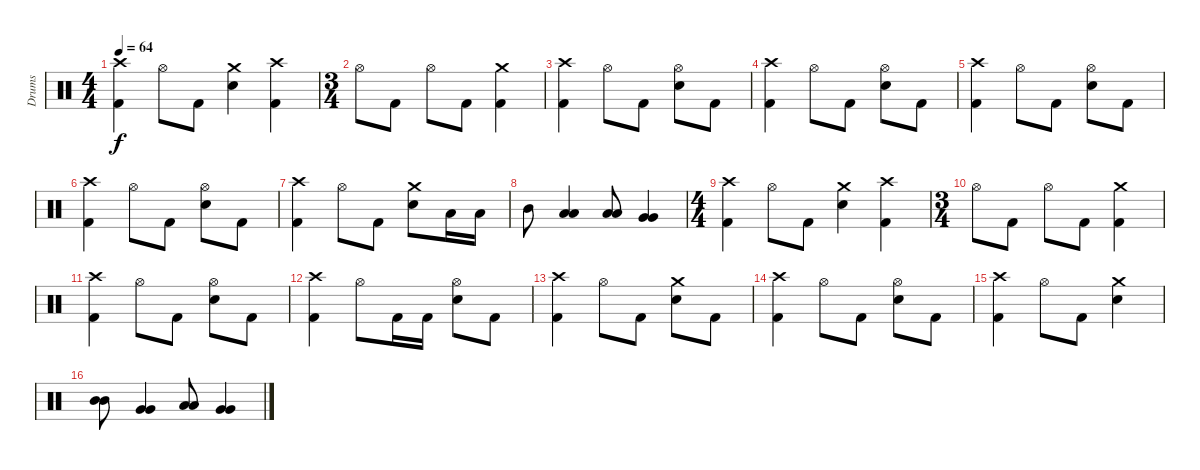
\track ("Drums" "Drums") {instrument percussion}
\staff {score}
\articulation defaults
\ts (4 4)
\tempo 64
\clef neutral
\ks c
("Crash high (hit)" "Kick (hit) 2").4{dy f} "Hi-Hat (open)".8 "Kick (hit) 2".8 ("Crash medium (hit)" "Electric Snare (hit)").4 ("Crash high (hit)" "Kick (hit) 2").4 |
\ts (3 4)
"Hi-Hat (open)".8 "Kick (hit) 2".8 "Hi-Hat (open)".8 "Kick (hit) 2".8 ("Crash medium (hit)" "Kick (hit) 2").4 |
("Crash high (hit)" "Kick (hit) 2").4 "Hi-Hat (open)".8 "Kick (hit) 2".8 ("Hi-Hat (open)" "Electric Snare (hit)").8 "Kick (hit) 2".8 |
("Crash high (hit)" "Kick (hit) 2").4 "Hi-Hat (open)".8 "Kick (hit) 2".8 ("Hi-Hat (open)" "Electric Snare (hit)").8 "Kick (hit) 2".8 |
("Crash high (hit)" "Kick (hit) 2").4 "Hi-Hat (open)".8 "Kick (hit) 2".8 ("Hi-Hat (open)" "Electric Snare (hit)").8 "Kick (hit) 2".8 |
("Crash high (hit)" "Kick (hit) 2").4 "Hi-Hat (open)".8 "Kick (hit) 2".8 ("Hi-Hat (open)" "Electric Snare (hit)").8 "Kick (hit) 2".8 |
("Crash high (hit)" "Kick (hit) 2").4 "Hi-Hat (open)".8 "Kick (hit) 2".8 ("Crash medium (hit)" "Electric Snare (hit)").8 "Low Tom (hit)".16 "Low Tom (hit)".16 |
"Mid Tom (hit)".8 ("Low Tom (hit)" "Low Tom (hit)").4 ("Low Tom (hit)" "Low Tom (hit)").8 ("Very Low Tom (hit)" "Very Low Tom (hit)").4 |
\ts (4 4)
("Crash high (hit)" "Kick (hit) 2").4 "Hi-Hat (open)".8 "Kick (hit) 2".8 ("Crash medium (hit)" "Electric Snare (hit)").4 ("Crash high (hit)" "Kick (hit) 2").4 |
\ts (3 4)
"Hi-Hat (open)".8 "Kick (hit) 2".8 "Hi-Hat (open)".8 "Kick (hit) 2".8 ("Crash medium (hit)" "Kick (hit) 2").4 |
("Crash high (hit)" "Kick (hit) 2").4 "Hi-Hat (open)".8 "Kick (hit) 2".8 ("Hi-Hat (open)" "Electric Snare (hit)").8 "Kick (hit) 2".8 |
("Crash high (hit)" "Kick (hit) 2").4 "Hi-Hat (open)".8 "Kick (hit) 2".16 "Kick (hit) 2".16 ("Hi-Hat (open)" "Electric Snare (hit)").8 "Kick (hit) 2".8 |
("Crash high (hit)" "Kick (hit) 2").4 "Hi-Hat (open)".8 "Kick (hit) 2".8 ("Crash medium (hit)" "Electric Snare (hit)").8 "Kick (hit) 2".8 |
("Crash high (hit)" "Kick (hit) 2").4 "Hi-Hat (open)".8 "Kick (hit) 2".8 ("Hi-Hat (open)" "Electric Snare (hit)").8 "Kick (hit) 2".8 |
("Crash high (hit)" "Kick (hit) 2").4 "Hi-Hat (open)".8 "Kick (hit) 2".8 ("Crash medium (hit)" "Electric Snare (hit)").4 |
("Mid Tom (hit)" "Mid Tom (hit)").8 ("Very Low Tom (hit)" "Very Low Tom (hit)").4 ("Low Tom (hit)" "Low Tom (hit)").8 ("Very Low Tom (hit)" "Very Low Tom (hit)").4
